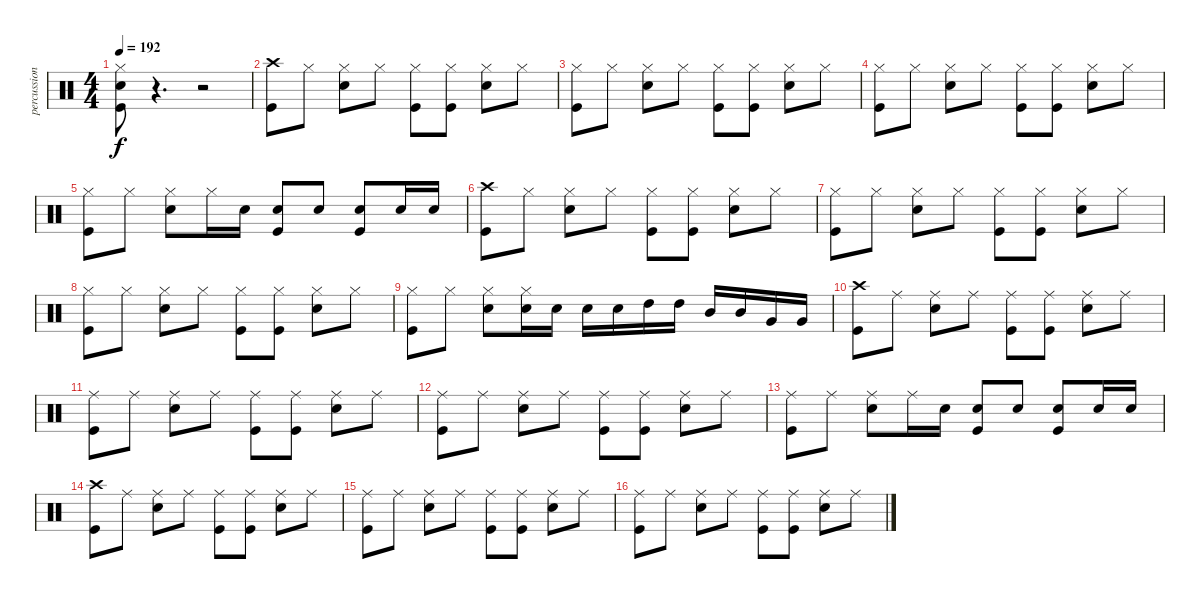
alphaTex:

\track ("percussion" "percussion") {instrument percussion}
\staff {score}
\articulation defaults
\ts (4 4)
\tempo 192
\clef neutral
\ks c
("Kick (hit)" "Snare (hit) 2" "Hi-Hat (closed)").8{dy f} r.4{d} r.2 |
("Crash high (hit)" "Kick (hit)").8 "Hi-Hat (closed)".8 ("Snare (hit) 2" "Hi-Hat (closed)").8 "Hi-Hat (closed)".8 ("Hi-Hat (closed)" "Kick (hit)").8 ("Kick (hit)" "Hi-Hat (closed)").8 ("Snare (hit) 2" "Hi-Hat (closed)").8 "Hi-Hat (closed)".8 |
("Hi-Hat (closed)" "Kick (hit)").8 "Hi-Hat (closed)".8 ("Snare (hit) 2" "Hi-Hat (closed)").8 "Hi-Hat (closed)".8 ("Hi-Hat (closed)" "Kick (hit)").8 ("Kick (hit)" "Hi-Hat (closed)").8 ("Snare (hit) 2" "Hi-Hat (closed)").8 "Hi-Hat (closed)".8 |
("Hi-Hat (closed)" "Kick (hit)").8 "Hi-Hat (closed)".8 ("Snare (hit) 2" "Hi-Hat (closed)").8 "Hi-Hat (closed)".8 ("Hi-Hat (closed)" "Kick (hit)").8 ("Kick (hit)" "Hi-Hat (closed)").8 ("Snare (hit) 2" "Hi-Hat (closed)").8 "Hi-Hat (closed)".8 |
("Hi-Hat (closed)" "Kick (hit)").8 "Hi-Hat (closed)".8 ("Snare (hit) 2" "Hi-Hat (closed)").8 "Hi-Hat (closed)".16 "Snare (hit) 2".16 ("Snare (hit) 2" "Kick (hit)").8 "Snare (hit) 2".8 ("Snare (hit) 2" "Kick (hit)").8 "Snare (hit) 2".16 "Snare (hit) 2".16 |
("Crash high (hit)" "Kick (hit)").8 "Hi-Hat (closed)".8 ("Snare (hit) 2" "Hi-Hat (closed)").8 "Hi-Hat (closed)".8 ("Hi-Hat (closed)" "Kick (hit)").8 ("Kick (hit)" "Hi-Hat (closed)").8 ("Snare (hit) 2" "Hi-Hat (closed)").8 "Hi-Hat (closed)".8 |
("Hi-Hat (closed)" "Kick (hit)").8 "Hi-Hat (closed)".8 ("Snare (hit) 2" "Hi-Hat (closed)").8 "Hi-Hat (closed)".8 ("Hi-Hat (closed)" "Kick (hit)").8 ("Kick (hit)" "Hi-Hat (closed)").8 ("Snare (hit) 2" "Hi-Hat (closed)").8 "Hi-Hat (closed)".8 |
("Hi-Hat (closed)" "Kick (hit)").8 "Hi-Hat (closed)".8 ("Snare (hit) 2" "Hi-Hat (closed)").8 "Hi-Hat (closed)".8 ("Hi-Hat (closed)" "Kick (hit)").8 ("Kick (hit)" "Hi-Hat (closed)").8 ("Snare (hit) 2" "Hi-Hat (closed)").8 "Hi-Hat (closed)".8 |
("Hi-Hat (closed)" "Kick (hit)").8 "Hi-Hat (closed)".8 ("Hi-Hat (closed)" "Snare (hit) 2").8 ("Hi-Hat (closed)" "Snare (hit) 2").16 "Snare (hit) 2".16 "Snare (hit) 2".16 "Snare (hit) 2".16 "High Tom (hit)".16 "High Tom (hit)".16 "Mid Tom (hit)".16 "Mid Tom (hit)".16 "Very Low Tom (hit)".16 "Very Low Tom (hit)".16 |
("Crash high (hit)" "Kick (hit)").8 "Ride (middle)".8 ("Ride (middle)" "Snare (hit) 2").8 "Ride (middle)".8 ("Ride (middle)" "Kick (hit)").8 ("Ride (middle)" "Kick (hit)").8 ("Ride (middle)" "Snare (hit) 2").8 "Ride (middle)".8 |
("Ride (middle)" "Kick (hit)").8 "Ride (middle)".8 ("Ride (middle)" "Snare (hit) 2").8 "Ride (middle)".8 ("Ride (middle)" "Kick (hit)").8 ("Ride (middle)" "Kick (hit)").8 ("Ride (middle)" "Snare (hit) 2").8 "Ride (middle)".8 |
("Ride (middle)" "Kick (hit)").8 "Ride (middle)".8 ("Ride (middle)" "Snare (hit) 2").8 "Ride (middle)".8 ("Ride (middle)" "Kick (hit)").8 ("Ride (middle)" "Kick (hit)").8 ("Ride (middle)" "Snare (hit) 2").8 "Ride (middle)".8 |
("Ride (middle)" "Kick (hit)").8 "Ride (middle)".8 ("Ride (middle)" "Snare (hit) 2").8 "Ride (middle)".16 "Snare (hit) 2".16 ("Snare (hit) 2" "Kick (hit)").8 "Snare (hit) 2".8 ("Snare (hit) 2" "Kick (hit)").8 "Snare (hit) 2".16 "Snare (hit) 2".16 |
("Crash high (hit)" "Kick (hit)").8 "Ride (middle)".8 ("Ride (middle)" "Snare (hit) 2").8 "Ride (middle)".8 ("Ride (middle)" "Kick (hit)").8 ("Ride (middle)" "Kick (hit)").8 ("Ride (middle)" "Snare (hit) 2").8 "Ride (middle)".8 |
("Ride (middle)" "Kick (hit)").8 "Ride (middle)".8 ("Ride (middle)" "Snare (hit) 2").8 "Ride (middle)".8 ("Ride (middle)" "Kick (hit)").8 ("Ride (middle)" "Kick (hit)").8 ("Ride (middle)" "Snare (hit) 2").8 "Ride (middle)".8 |
("Ride (middle)" "Kick (hit)").8 "Ride (middle)".8 ("Ride (middle)" "Snare (hit) 2").8 "Ride (middle)".8 ("Ride (middle)" "Kick (hit)").8 ("Ride (middle)" "Kick (hit)").8 ("Ride (middle)" "Snare (hit) 2").8 "Ride (middle)".8
